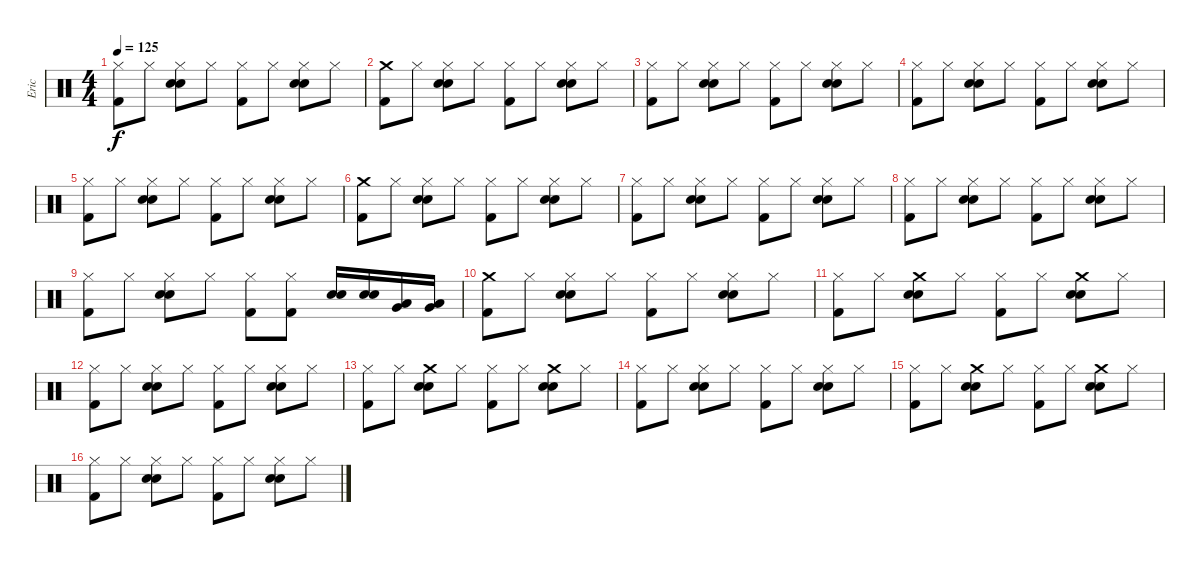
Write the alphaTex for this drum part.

\track ("Eric" "Eric") {instrument percussion}
\staff {score}
\articulation defaults
\ts (4 4)
\tempo 125
\clef neutral
\ks c
("Hi-Hat (closed)" "Kick (hit) 2").8{dy f} "Hi-Hat (closed)".8 ("Hi-Hat (closed)" "Electric Snare (hit)" "Snare (hit) 2").8 "Hi-Hat (closed)".8 ("Hi-Hat (closed)" "Kick (hit) 2").8 "Hi-Hat (closed)".8 ("Hi-Hat (closed)" "Snare (hit) 2" "Electric Snare (hit)").8 "Hi-Hat (closed)".8 |
("Crash medium (hit)" "Kick (hit) 2").8 "Hi-Hat (closed)".8 ("Hi-Hat (closed)" "Electric Snare (hit)" "Snare (hit) 2").8 "Hi-Hat (closed)".8 ("Hi-Hat (closed)" "Kick (hit) 2").8 "Hi-Hat (closed)".8 ("Hi-Hat (closed)" "Snare (hit) 2" "Electric Snare (hit)").8 "Hi-Hat (closed)".8 |
("Hi-Hat (closed)" "Kick (hit) 2").8 "Hi-Hat (closed)".8 ("Hi-Hat (closed)" "Electric Snare (hit)" "Snare (hit) 2").8 "Hi-Hat (closed)".8 ("Hi-Hat (closed)" "Kick (hit) 2").8 "Hi-Hat (closed)".8 ("Hi-Hat (closed)" "Snare (hit) 2" "Electric Snare (hit)").8 "Hi-Hat (closed)".8 |
("Hi-Hat (closed)" "Kick (hit) 2").8 "Hi-Hat (closed)".8 ("Hi-Hat (closed)" "Electric Snare (hit)" "Snare (hit) 2").8 "Hi-Hat (closed)".8 ("Hi-Hat (closed)" "Kick (hit) 2").8 "Hi-Hat (closed)".8 ("Hi-Hat (closed)" "Snare (hit) 2" "Electric Snare (hit)").8 "Hi-Hat (closed)".8 |
("Hi-Hat (closed)" "Kick (hit) 2").8 "Hi-Hat (closed)".8 ("Hi-Hat (closed)" "Electric Snare (hit)" "Snare (hit) 2").8 "Hi-Hat (closed)".8 ("Hi-Hat (closed)" "Kick (hit) 2").8 "Hi-Hat (closed)".8 ("Hi-Hat (closed)" "Snare (hit) 2" "Electric Snare (hit)").8 "Hi-Hat (closed)".8 |
("Crash medium (hit)" "Kick (hit) 2").8 "Hi-Hat (closed)".8 ("Hi-Hat (closed)" "Electric Snare (hit)" "Snare (hit) 2").8 "Hi-Hat (closed)".8 ("Hi-Hat (closed)" "Kick (hit) 2").8 "Hi-Hat (closed)".8 ("Hi-Hat (closed)" "Snare (hit) 2" "Electric Snare (hit)").8 "Hi-Hat (closed)".8 |
("Hi-Hat (closed)" "Kick (hit) 2").8 "Hi-Hat (closed)".8 ("Hi-Hat (closed)" "Electric Snare (hit)" "Snare (hit) 2").8 "Hi-Hat (closed)".8 ("Hi-Hat (closed)" "Kick (hit) 2").8 "Hi-Hat (closed)".8 ("Hi-Hat (closed)" "Snare (hit) 2" "Electric Snare (hit)").8 "Hi-Hat (closed)".8 |
("Hi-Hat (closed)" "Kick (hit) 2").8 "Hi-Hat (closed)".8 ("Hi-Hat (closed)" "Electric Snare (hit)" "Snare (hit) 2").8 "Hi-Hat (closed)".8 ("Hi-Hat (closed)" "Kick (hit) 2").8 "Hi-Hat (closed)".8 ("Hi-Hat (closed)" "Snare (hit) 2" "Electric Snare (hit)").8 "Hi-Hat (closed)".8 |
("Hi-Hat (closed)" "Kick (hit) 2").8 "Hi-Hat (closed)".8 ("Hi-Hat (closed)" "Electric Snare (hit)" "Snare (hit) 2").8 "Hi-Hat (closed)".8 ("Hi-Hat (closed)" "Kick (hit) 2").8 ("Kick (hit) 2" "Hi-Hat (closed)").8 ("Snare (hit) 2" "Electric Snare (hit)").16 ("Electric Snare (hit)" "Snare (hit) 2").16 ("Very Low Tom (hit)" "Low Tom (hit)").16 ("Very Low Tom (hit)" "Low Tom (hit)").16 |
("Crash medium (hit)" "Kick (hit) 2").8 "Hi-Hat (closed)".8 ("Hi-Hat (closed)" "Electric Snare (hit)" "Snare (hit) 2").8 "Hi-Hat (closed)".8 ("Hi-Hat (closed)" "Kick (hit) 2").8 "Hi-Hat (closed)".8 ("Hi-Hat (closed)" "Snare (hit) 2" "Electric Snare (hit)").8 "Hi-Hat (closed)".8 |
("Hi-Hat (closed)" "Kick (hit) 2").8 "Hi-Hat (closed)".8 ("Crash medium (hit)" "Electric Snare (hit)" "Snare (hit) 2").8 "Hi-Hat (closed)".8 ("Hi-Hat (closed)" "Kick (hit) 2").8 "Hi-Hat (closed)".8 ("Crash medium (hit)" "Snare (hit) 2" "Electric Snare (hit)").8 "Hi-Hat (closed)".8 |
("Hi-Hat (closed)" "Kick (hit) 2").8 "Hi-Hat (closed)".8 ("Hi-Hat (closed)" "Electric Snare (hit)" "Snare (hit) 2").8 "Hi-Hat (closed)".8 ("Hi-Hat (closed)" "Kick (hit) 2").8 "Hi-Hat (closed)".8 ("Hi-Hat (closed)" "Snare (hit) 2" "Electric Snare (hit)").8 "Hi-Hat (closed)".8 |
("Hi-Hat (closed)" "Kick (hit) 2").8 "Hi-Hat (closed)".8 ("Crash medium (hit)" "Electric Snare (hit)" "Snare (hit) 2").8 "Hi-Hat (closed)".8 ("Hi-Hat (closed)" "Kick (hit) 2").8 "Hi-Hat (closed)".8 ("Crash medium (hit)" "Snare (hit) 2" "Electric Snare (hit)").8 "Hi-Hat (closed)".8 |
("Hi-Hat (closed)" "Kick (hit) 2").8 "Hi-Hat (closed)".8 ("Hi-Hat (closed)" "Electric Snare (hit)" "Snare (hit) 2").8 "Hi-Hat (closed)".8 ("Hi-Hat (closed)" "Kick (hit) 2").8 "Hi-Hat (closed)".8 ("Hi-Hat (closed)" "Snare (hit) 2" "Electric Snare (hit)").8 "Hi-Hat (closed)".8 |
("Hi-Hat (closed)" "Kick (hit) 2").8 "Hi-Hat (closed)".8 ("Crash medium (hit)" "Electric Snare (hit)" "Snare (hit) 2").8 "Hi-Hat (closed)".8 ("Hi-Hat (closed)" "Kick (hit) 2").8 "Hi-Hat (closed)".8 ("Crash medium (hit)" "Snare (hit) 2" "Electric Snare (hit)").8 "Hi-Hat (closed)".8 |
("Hi-Hat (closed)" "Kick (hit) 2").8 "Hi-Hat (closed)".8 ("Hi-Hat (closed)" "Electric Snare (hit)" "Snare (hit) 2").8 "Hi-Hat (closed)".8 ("Hi-Hat (closed)" "Kick (hit) 2").8 "Hi-Hat (closed)".8 ("Hi-Hat (closed)" "Snare (hit) 2" "Electric Snare (hit)").8 "Hi-Hat (closed)".8
